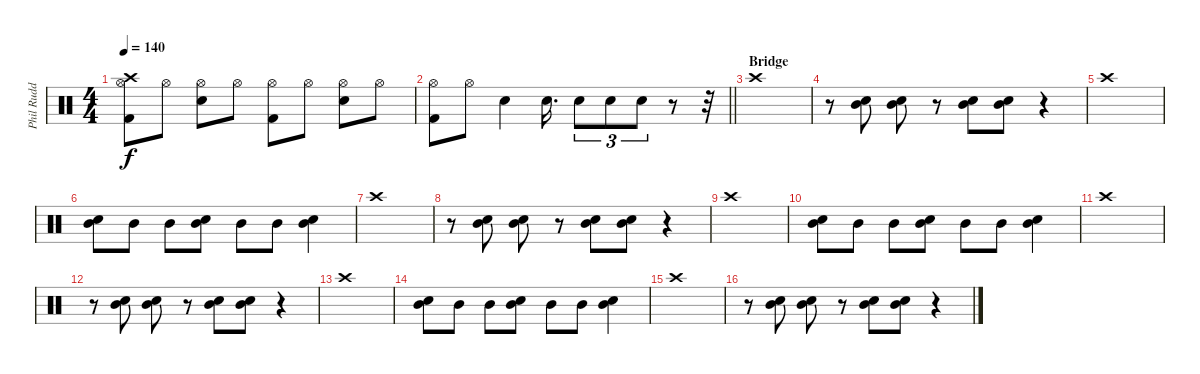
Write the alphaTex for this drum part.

\track ("Phil Rudd" "Phil Rudd") {instrument percussion}
\staff {score}
\articulation defaults
\ts (4 4)
\tempo 140
\clef neutral
\ks c
("Crash high (hit)" "Hi-Hat (open)" "Kick (hit) 2").8{dy f} "Hi-Hat (open)".8 ("Hi-Hat (open)" "Snare (hit) 2").8 "Hi-Hat (open)".8 ("Hi-Hat (open)" "Kick (hit) 2").8 "Hi-Hat (open)".8 ("Hi-Hat (open)" "Snare (hit) 2").8 "Hi-Hat (open)".8 |
\barLineRight lightlight
("Hi-Hat (open)" "Kick (hit) 2").8 "Hi-Hat (open)".8 "Snare (hit) 2".4 "Snare (hit) 2".16{d} "Snare (hit) 2".8{tu (3 2)} "Snare (hit) 2".8{tu (3 2)} "Snare (hit) 2".8{tu (3 2)} r.8 r.32 |
\section ("" "Bridge")
"Crash high (hit)".1 |
r.8 ("Mid Tom (hit)" "Snare (hit) 2").8 ("Mid Tom (hit)" "Snare (hit) 2").8 r.8 ("Mid Tom (hit)" "Snare (hit) 2").8 ("Mid Tom (hit)" "Snare (hit) 2").8 r.4 |
"Crash high (hit)".1 |
("Mid Tom (hit)" "Snare (hit) 2").8 "Mid Tom (hit)".8 "Mid Tom (hit)".8 ("Mid Tom (hit)" "Snare (hit) 2").8 "Mid Tom (hit)".8 "Mid Tom (hit)".8 ("Mid Tom (hit)" "Snare (hit) 2").4 |
"Crash high (hit)".1 |
r.8 ("Mid Tom (hit)" "Snare (hit) 2").8 ("Mid Tom (hit)" "Snare (hit) 2").8 r.8 ("Mid Tom (hit)" "Snare (hit) 2").8 ("Mid Tom (hit)" "Snare (hit) 2").8 r.4 |
"Crash high (hit)".1 |
("Mid Tom (hit)" "Snare (hit) 2").8 "Mid Tom (hit)".8 "Mid Tom (hit)".8 ("Mid Tom (hit)" "Snare (hit) 2").8 "Mid Tom (hit)".8 "Mid Tom (hit)".8 ("Mid Tom (hit)" "Snare (hit) 2").4 |
"Crash high (hit)".1 |
r.8 ("Mid Tom (hit)" "Snare (hit) 2").8 ("Mid Tom (hit)" "Snare (hit) 2").8 r.8 ("Mid Tom (hit)" "Snare (hit) 2").8 ("Mid Tom (hit)" "Snare (hit) 2").8 r.4 |
"Crash high (hit)".1 |
("Mid Tom (hit)" "Snare (hit) 2").8 "Mid Tom (hit)".8 "Mid Tom (hit)".8 ("Mid Tom (hit)" "Snare (hit) 2").8 "Mid Tom (hit)".8 "Mid Tom (hit)".8 ("Mid Tom (hit)" "Snare (hit) 2").4 |
"Crash high (hit)".1 |
r.8 ("Mid Tom (hit)" "Snare (hit) 2").8 ("Mid Tom (hit)" "Snare (hit) 2").8 r.8 ("Mid Tom (hit)" "Snare (hit) 2").8 ("Mid Tom (hit)" "Snare (hit) 2").8 r.4
